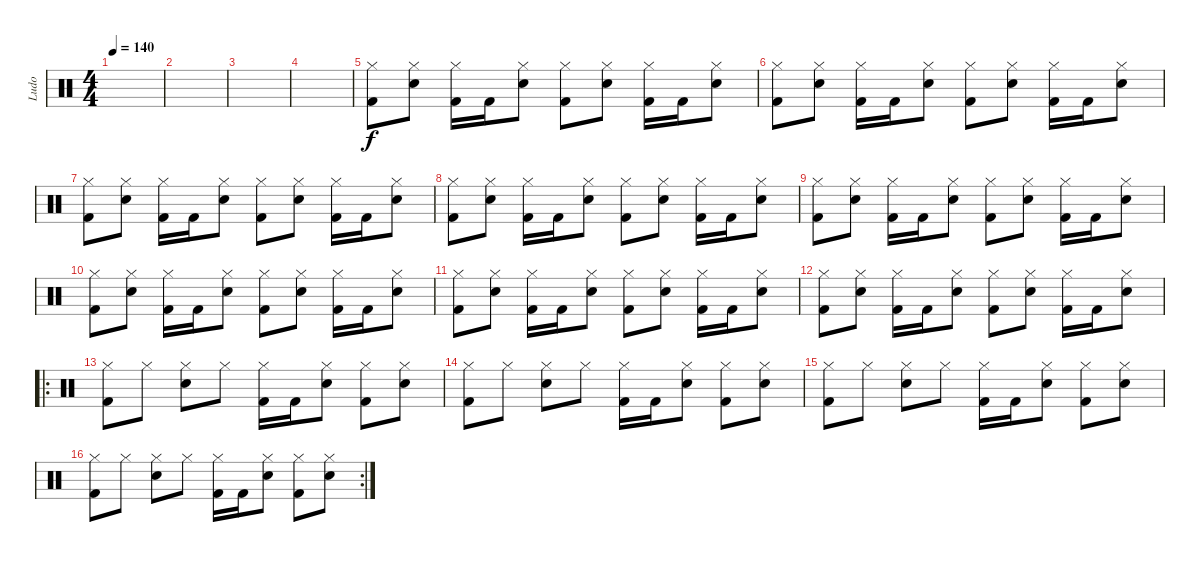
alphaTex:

\track ("Ludo" "Ludo") {instrument percussion}
\staff {score}
\articulation defaults
\ts (4 4)
\tempo 140
\clef neutral
\ks c
|
|
|
|
("Hi-Hat (closed)" "Kick (hit) 2").8 ("Hi-Hat (closed)" "Electric Snare (hit)").8 ("Hi-Hat (closed)" "Kick (hit) 2").16 "Kick (hit) 2".16 ("Hi-Hat (closed)" "Electric Snare (hit)").8 ("Hi-Hat (closed)" "Kick (hit) 2").8 ("Hi-Hat (closed)" "Electric Snare (hit)").8 ("Hi-Hat (closed)" "Kick (hit) 2").16 "Kick (hit) 2".16 ("Hi-Hat (closed)" "Electric Snare (hit)").8 |
("Hi-Hat (closed)" "Kick (hit) 2").8 ("Hi-Hat (closed)" "Electric Snare (hit)").8 ("Hi-Hat (closed)" "Kick (hit) 2").16 "Kick (hit) 2".16 ("Hi-Hat (closed)" "Electric Snare (hit)").8 ("Hi-Hat (closed)" "Kick (hit) 2").8 ("Hi-Hat (closed)" "Electric Snare (hit)").8 ("Hi-Hat (closed)" "Kick (hit) 2").16 "Kick (hit) 2".16 ("Hi-Hat (closed)" "Electric Snare (hit)").8 |
("Hi-Hat (closed)" "Kick (hit) 2").8 ("Hi-Hat (closed)" "Electric Snare (hit)").8 ("Hi-Hat (closed)" "Kick (hit) 2").16 "Kick (hit) 2".16 ("Hi-Hat (closed)" "Electric Snare (hit)").8 ("Hi-Hat (closed)" "Kick (hit) 2").8 ("Hi-Hat (closed)" "Electric Snare (hit)").8 ("Hi-Hat (closed)" "Kick (hit) 2").16 "Kick (hit) 2".16 ("Hi-Hat (closed)" "Electric Snare (hit)").8 |
("Hi-Hat (closed)" "Kick (hit) 2").8 ("Hi-Hat (closed)" "Electric Snare (hit)").8 ("Hi-Hat (closed)" "Kick (hit) 2").16 "Kick (hit) 2".16 ("Hi-Hat (closed)" "Electric Snare (hit)").8 ("Hi-Hat (closed)" "Kick (hit) 2").8 ("Hi-Hat (closed)" "Electric Snare (hit)").8 ("Hi-Hat (closed)" "Kick (hit) 2").16 "Kick (hit) 2".16 ("Hi-Hat (closed)" "Electric Snare (hit)").8 |
("Hi-Hat (closed)" "Kick (hit) 2").8 ("Hi-Hat (closed)" "Electric Snare (hit)").8 ("Hi-Hat (closed)" "Kick (hit) 2").16 "Kick (hit) 2".16 ("Hi-Hat (closed)" "Electric Snare (hit)").8 ("Hi-Hat (closed)" "Kick (hit) 2").8 ("Hi-Hat (closed)" "Electric Snare (hit)").8 ("Hi-Hat (closed)" "Kick (hit) 2").16 "Kick (hit) 2".16 ("Hi-Hat (closed)" "Electric Snare (hit)").8 |
("Hi-Hat (closed)" "Kick (hit) 2").8 ("Hi-Hat (closed)" "Electric Snare (hit)").8 ("Hi-Hat (closed)" "Kick (hit) 2").16 "Kick (hit) 2".16 ("Hi-Hat (closed)" "Electric Snare (hit)").8 ("Hi-Hat (closed)" "Kick (hit) 2").8 ("Hi-Hat (closed)" "Electric Snare (hit)").8 ("Hi-Hat (closed)" "Kick (hit) 2").16 "Kick (hit) 2".16 ("Hi-Hat (closed)" "Electric Snare (hit)").8 |
("Hi-Hat (closed)" "Kick (hit) 2").8 ("Hi-Hat (closed)" "Electric Snare (hit)").8 ("Hi-Hat (closed)" "Kick (hit) 2").16 "Kick (hit) 2".16 ("Hi-Hat (closed)" "Electric Snare (hit)").8 ("Hi-Hat (closed)" "Kick (hit) 2").8 ("Hi-Hat (closed)" "Electric Snare (hit)").8 ("Hi-Hat (closed)" "Kick (hit) 2").16 "Kick (hit) 2".16 ("Hi-Hat (closed)" "Electric Snare (hit)").8 |
("Hi-Hat (closed)" "Kick (hit) 2").8 ("Hi-Hat (closed)" "Electric Snare (hit)").8 ("Hi-Hat (closed)" "Kick (hit) 2").16 "Kick (hit) 2".16 ("Hi-Hat (closed)" "Electric Snare (hit)").8 ("Hi-Hat (closed)" "Kick (hit) 2").8 ("Hi-Hat (closed)" "Electric Snare (hit)").8 ("Hi-Hat (closed)" "Kick (hit) 2").16 "Kick (hit) 2".16 ("Hi-Hat (closed)" "Electric Snare (hit)").8 |
\ro
("Hi-Hat (closed)" "Kick (hit) 2").8 "Hi-Hat (closed)".8 ("Hi-Hat (closed)" "Electric Snare (hit)").8 "Hi-Hat (closed)".8 ("Hi-Hat (closed)" "Kick (hit) 2").16 "Kick (hit) 2".16 ("Hi-Hat (closed)" "Electric Snare (hit)").8 ("Hi-Hat (closed)" "Kick (hit) 2").8 ("Hi-Hat (closed)" "Electric Snare (hit)").8 |
("Hi-Hat (closed)" "Kick (hit) 2").8 "Hi-Hat (closed)".8 ("Hi-Hat (closed)" "Electric Snare (hit)").8 "Hi-Hat (closed)".8 ("Hi-Hat (closed)" "Kick (hit) 2").16 "Kick (hit) 2".16 ("Hi-Hat (closed)" "Electric Snare (hit)").8 ("Hi-Hat (closed)" "Kick (hit) 2").8 ("Hi-Hat (closed)" "Electric Snare (hit)").8 |
("Hi-Hat (closed)" "Kick (hit) 2").8 "Hi-Hat (closed)".8 ("Hi-Hat (closed)" "Electric Snare (hit)").8 "Hi-Hat (closed)".8 ("Hi-Hat (closed)" "Kick (hit) 2").16 "Kick (hit) 2".16 ("Hi-Hat (closed)" "Electric Snare (hit)").8 ("Hi-Hat (closed)" "Kick (hit) 2").8 ("Hi-Hat (closed)" "Electric Snare (hit)").8 |
\rc 2
("Hi-Hat (closed)" "Kick (hit) 2").8 "Hi-Hat (closed)".8 ("Hi-Hat (closed)" "Electric Snare (hit)").8 "Hi-Hat (closed)".8 ("Hi-Hat (closed)" "Kick (hit) 2").16 "Kick (hit) 2".16 ("Hi-Hat (closed)" "Electric Snare (hit)").8 ("Hi-Hat (closed)" "Kick (hit) 2").8 ("Hi-Hat (closed)" "Electric Snare (hit)").8
